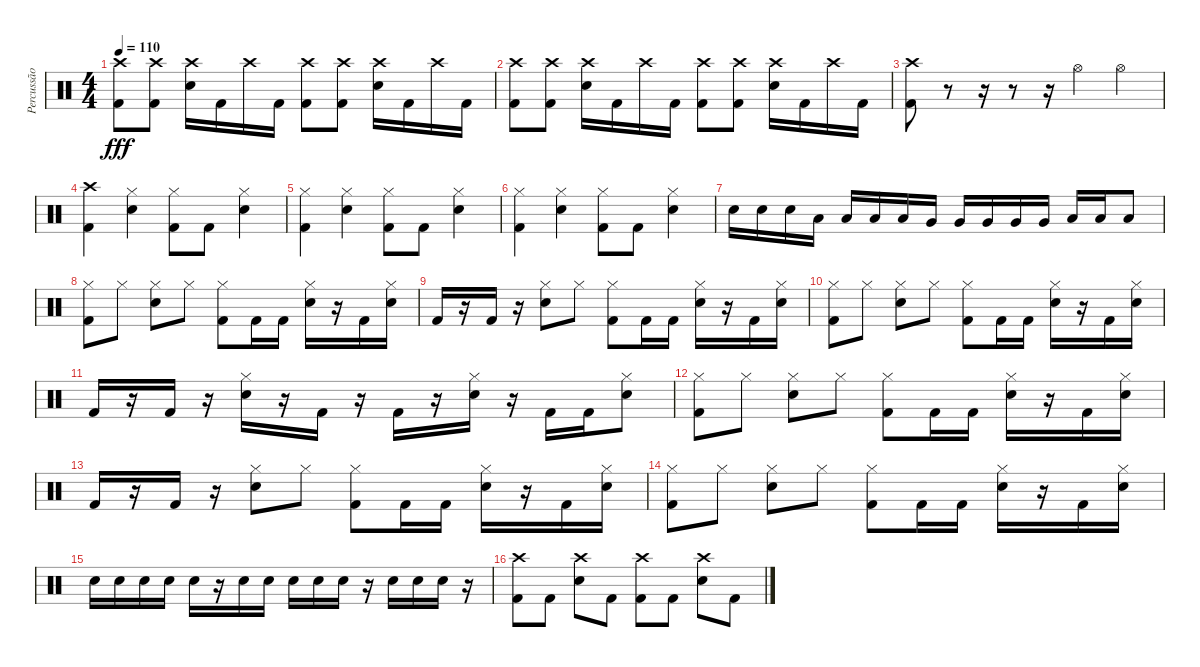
\track ("Percussão" "Percussão") {instrument percussion}
\staff {score}
\articulation defaults
\ts (4 4)
\tempo 110
\clef neutral
\ks c
("Crash high (hit)" "Kick (hit) 2").8{dy fff} ("Crash high (hit)" "Kick (hit) 2").8 ("Crash high (hit)" "Electric Snare (hit)").16 "Kick (hit) 2".16 "Crash high (hit)".16 "Kick (hit) 2".16 ("Crash high (hit)" "Kick (hit) 2").8 ("Crash high (hit)" "Kick (hit) 2").8 ("Crash high (hit)" "Electric Snare (hit)").16 "Kick (hit) 2".16 "Crash high (hit)".16 "Kick (hit) 2".16 |
("Crash high (hit)" "Kick (hit) 2").8 ("Crash high (hit)" "Kick (hit) 2").8 ("Crash high (hit)" "Electric Snare (hit)").16 "Kick (hit) 2".16 "Crash high (hit)".16 "Kick (hit) 2".16 ("Crash high (hit)" "Kick (hit) 2").8 ("Crash high (hit)" "Kick (hit) 2").8 ("Crash high (hit)" "Electric Snare (hit)").16 "Kick (hit) 2".16 "Crash high (hit)".16 "Kick (hit) 2".16 |
("Crash high (hit)" "Kick (hit) 2").8 r.8 r.16 r.8 r.16 "Hi-Hat (open)".4 "Hi-Hat (open)".4 |
("Crash high (hit)" "Kick (hit) 2").4 ("Hi-Hat (closed)" "Electric Snare (hit)").4 ("Hi-Hat (closed)" "Kick (hit) 2").8 "Kick (hit) 2".8 ("Hi-Hat (closed)" "Electric Snare (hit)").4 |
("Hi-Hat (closed)" "Kick (hit) 2").4 ("Hi-Hat (closed)" "Electric Snare (hit)").4 ("Hi-Hat (closed)" "Kick (hit) 2").8 "Kick (hit) 2".8 ("Hi-Hat (closed)" "Electric Snare (hit)").4 |
("Hi-Hat (closed)" "Kick (hit) 2").4 ("Hi-Hat (closed)" "Electric Snare (hit)").4 ("Hi-Hat (closed)" "Kick (hit) 2").8 "Kick (hit) 2".8 ("Hi-Hat (closed)" "Electric Snare (hit)").4 |
"Electric Snare (hit)".16 "Electric Snare (hit)".16 "Electric Snare (hit)".16 "Low Tom (hit)".16 "Low Tom (hit)".16 "Low Tom (hit)".16 "Low Tom (hit)".16 "Very Low Tom (hit)".16 "Very Low Tom (hit)".16 "Very Low Tom (hit)".16 "Very Low Tom (hit)".16 "Very Low Tom (hit)".16 "Low Floor Tom (hit)".16 "Low Floor Tom (hit)".16 "Low Floor Tom (hit)".8 |
("Hi-Hat (closed)" "Kick (hit) 2").8 "Hi-Hat (closed)".8 ("Hi-Hat (closed)" "Electric Snare (hit)").8 "Hi-Hat (closed)".8 ("Hi-Hat (closed)" "Kick (hit) 2").8 "Kick (hit) 2".16 "Kick (hit) 2".16 ("Hi-Hat (closed)" "Electric Snare (hit)").16 r.16 "Kick (hit) 2".16 ("Hi-Hat (closed)" "Electric Snare (hit)").16 |
"Kick (hit) 2".16 r.16 "Kick (hit) 2".16 r.16 ("Hi-Hat (closed)" "Electric Snare (hit)").8 "Hi-Hat (closed)".8 ("Hi-Hat (closed)" "Kick (hit) 2").8 "Kick (hit) 2".16 "Kick (hit) 2".16 ("Hi-Hat (closed)" "Electric Snare (hit)").16 r.16 "Kick (hit) 2".16 ("Hi-Hat (closed)" "Electric Snare (hit)").16 |
("Hi-Hat (closed)" "Kick (hit) 2").8 "Hi-Hat (closed)".8 ("Hi-Hat (closed)" "Electric Snare (hit)").8 "Hi-Hat (closed)".8 ("Hi-Hat (closed)" "Kick (hit) 2").8 "Kick (hit) 2".16 "Kick (hit) 2".16 ("Hi-Hat (closed)" "Electric Snare (hit)").16 r.16 "Kick (hit) 2".16 ("Hi-Hat (closed)" "Electric Snare (hit)").16 |
"Kick (hit) 2".16 r.16 "Kick (hit) 2".16 r.16 ("Hi-Hat (closed)" "Electric Snare (hit)").16 r.16 "Kick (hit) 2".16 r.16 "Kick (hit) 2".16 r.16 ("Hi-Hat (closed)" "Electric Snare (hit)").16 r.16 "Kick (hit) 2".16 "Kick (hit) 2".16 ("Hi-Hat (closed)" "Electric Snare (hit)").8 |
("Hi-Hat (closed)" "Kick (hit) 2").8 "Hi-Hat (closed)".8 ("Hi-Hat (closed)" "Electric Snare (hit)").8 "Hi-Hat (closed)".8 ("Hi-Hat (closed)" "Kick (hit) 2").8 "Kick (hit) 2".16 "Kick (hit) 2".16 ("Hi-Hat (closed)" "Electric Snare (hit)").16 r.16 "Kick (hit) 2".16 ("Hi-Hat (closed)" "Electric Snare (hit)").16 |
"Kick (hit) 2".16 r.16 "Kick (hit) 2".16 r.16 ("Hi-Hat (closed)" "Electric Snare (hit)").8 "Hi-Hat (closed)".8 ("Hi-Hat (closed)" "Kick (hit) 2").8 "Kick (hit) 2".16 "Kick (hit) 2".16 ("Hi-Hat (closed)" "Electric Snare (hit)").16 r.16 "Kick (hit) 2".16 ("Hi-Hat (closed)" "Electric Snare (hit)").16 |
("Hi-Hat (closed)" "Kick (hit) 2").8 "Hi-Hat (closed)".8 ("Hi-Hat (closed)" "Electric Snare (hit)").8 "Hi-Hat (closed)".8 ("Hi-Hat (closed)" "Kick (hit) 2").8 "Kick (hit) 2".16 "Kick (hit) 2".16 ("Hi-Hat (closed)" "Electric Snare (hit)").16 r.16 "Kick (hit) 2".16 ("Hi-Hat (closed)" "Electric Snare (hit)").16 |
"Electric Snare (hit)".16 "Electric Snare (hit)".16 "Electric Snare (hit)".16 "Electric Snare (hit)".16 "Electric Snare (hit)".16 r.16 "Electric Snare (hit)".16 "Electric Snare (hit)".16 "Electric Snare (hit)".16 "Electric Snare (hit)".16 "Electric Snare (hit)".16 r.16 "Electric Snare (hit)".16 "Electric Snare (hit)".16 "Electric Snare (hit)".16 r.16 |
("Crash high (hit)" "Kick (hit) 2").8 "Kick (hit) 2".8 ("Crash high (hit)" "Electric Snare (hit)").8 "Kick (hit) 2".8 ("Crash high (hit)" "Kick (hit) 2").8 "Kick (hit) 2".8 ("Crash high (hit)" "Electric Snare (hit)").8 "Kick (hit) 2".8
